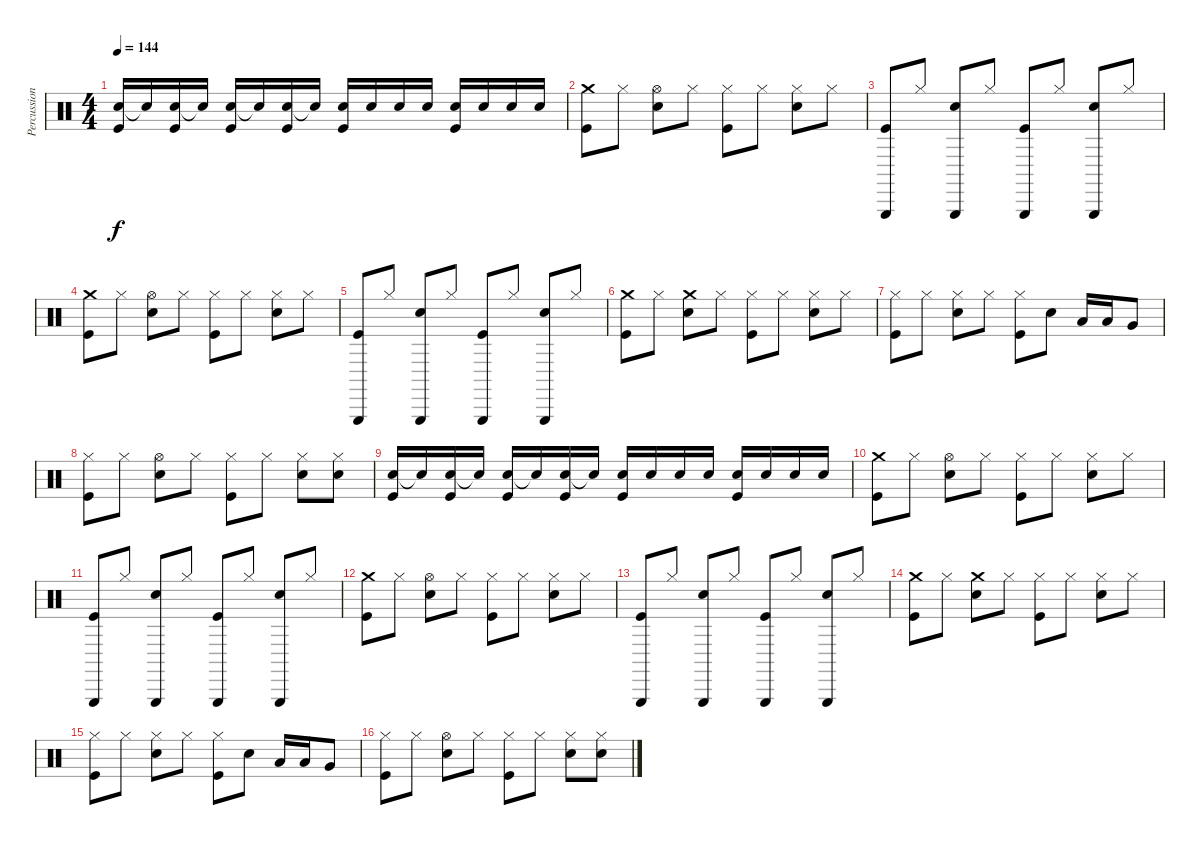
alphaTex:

\track ("Percussion" "Percussion") {instrument percussion}
\staff {score}
\articulation defaults
\ts (4 4)
\tempo 144
\clef neutral
\ks c
("Snare (hit) 2" "Kick (hit)").16{dy f} "Snare (hit) 2"{t}.16 ("Snare (hit) 2" "Kick (hit)").16 "Snare (hit) 2"{t}.16 ("Snare (hit) 2" "Kick (hit)").16 "Snare (hit) 2"{t}.16 ("Snare (hit) 2" "Kick (hit)").16 "Snare (hit) 2"{t}.16 ("Snare (hit) 2" "Kick (hit)").16 "Snare (hit) 2".16 "Snare (hit) 2".16 "Snare (hit) 2".16 ("Snare (hit) 2" "Kick (hit)").16 "Snare (hit) 2".16 "Snare (hit) 2".16 "Snare (hit) 2".16 |
("Crash medium (hit)" "Kick (hit)").8 "Hi-Hat (closed)".8 ("Hi-Hat (open)" "Snare (hit) 2").8 "Hi-Hat (closed)".8 ("Hi-Hat (closed)" "Kick (hit)").8 "Hi-Hat (closed)".8 ("Hi-Hat (closed)" "Snare (hit) 2").8 "Hi-Hat (closed)".8 |
("Triangle (hit)" "Kick (hit)").8 "Hi-Hat (closed)".8 ("Triangle (hit)" "Snare (hit) 2").8 "Hi-Hat (closed)".8 ("Triangle (hit)" "Kick (hit)").8 "Hi-Hat (closed)".8 ("Triangle (hit)" "Snare (hit) 2").8 "Hi-Hat (closed)".8 |
("Crash medium (hit)" "Kick (hit)").8 "Hi-Hat (closed)".8 ("Hi-Hat (open)" "Snare (hit) 2").8 "Hi-Hat (closed)".8 ("Hi-Hat (closed)" "Kick (hit)").8 "Hi-Hat (closed)".8 ("Hi-Hat (closed)" "Snare (hit) 2").8 "Hi-Hat (closed)".8 |
("Triangle (hit)" "Kick (hit)").8 "Hi-Hat (closed)".8 ("Triangle (hit)" "Snare (hit) 2").8 "Hi-Hat (closed)".8 ("Triangle (hit)" "Kick (hit)").8 "Hi-Hat (closed)".8 ("Triangle (hit)" "Snare (hit) 2").8 "Hi-Hat (closed)".8 |
("Crash medium (hit)" "Kick (hit)").8 "Hi-Hat (closed)".8 ("Crash medium (hit)" "Snare (hit) 2").8 "Hi-Hat (closed)".8 ("Hi-Hat (closed)" "Kick (hit)").8 "Hi-Hat (closed)".8 ("Hi-Hat (closed)" "Snare (hit) 2").8 "Hi-Hat (closed)".8 |
("Hi-Hat (closed)" "Kick (hit)").8 "Hi-Hat (closed)".8 ("Hi-Hat (closed)" "Snare (hit) 2").8 "Hi-Hat (closed)".8 ("Hi-Hat (closed)" "Kick (hit)").8 "Snare (hit) 2".8 "Low Floor Tom (hit)".16 "Low Floor Tom (hit)".16 "Very Low Tom (hit)".8 |
("Hi-Hat (closed)" "Kick (hit)").8 "Hi-Hat (closed)".8 ("Hi-Hat (open)" "Snare (hit) 2").8 "Hi-Hat (closed)".8 ("Hi-Hat (closed)" "Kick (hit)").8 "Hi-Hat (closed)".8 ("Hi-Hat (closed)" "Snare (hit) 2").8 ("Hi-Hat (closed)" "Snare (hit) 2").8 |
("Snare (hit) 2" "Kick (hit)").16 "Snare (hit) 2"{t}.16 ("Snare (hit) 2" "Kick (hit)").16 "Snare (hit) 2"{t}.16 ("Snare (hit) 2" "Kick (hit)").16 "Snare (hit) 2"{t}.16 ("Snare (hit) 2" "Kick (hit)").16 "Snare (hit) 2"{t}.16 ("Snare (hit) 2" "Kick (hit)").16 "Snare (hit) 2".16 "Snare (hit) 2".16 "Snare (hit) 2".16 ("Snare (hit) 2" "Kick (hit)").16 "Snare (hit) 2".16 "Snare (hit) 2".16 "Snare (hit) 2".16 |
("Crash medium (hit)" "Kick (hit)").8 "Hi-Hat (closed)".8 ("Hi-Hat (open)" "Snare (hit) 2").8 "Hi-Hat (closed)".8 ("Hi-Hat (closed)" "Kick (hit)").8 "Hi-Hat (closed)".8 ("Hi-Hat (closed)" "Snare (hit) 2").8 "Hi-Hat (closed)".8 |
("Triangle (hit)" "Kick (hit)").8 "Hi-Hat (closed)".8 ("Triangle (hit)" "Snare (hit) 2").8 "Hi-Hat (closed)".8 ("Triangle (hit)" "Kick (hit)").8 "Hi-Hat (closed)".8 ("Triangle (hit)" "Snare (hit) 2").8 "Hi-Hat (closed)".8 |
("Crash medium (hit)" "Kick (hit)").8 "Hi-Hat (closed)".8 ("Hi-Hat (open)" "Snare (hit) 2").8 "Hi-Hat (closed)".8 ("Hi-Hat (closed)" "Kick (hit)").8 "Hi-Hat (closed)".8 ("Hi-Hat (closed)" "Snare (hit) 2").8 "Hi-Hat (closed)".8 |
("Triangle (hit)" "Kick (hit)").8 "Hi-Hat (closed)".8 ("Triangle (hit)" "Snare (hit) 2").8 "Hi-Hat (closed)".8 ("Triangle (hit)" "Kick (hit)").8 "Hi-Hat (closed)".8 ("Triangle (hit)" "Snare (hit) 2").8 "Hi-Hat (closed)".8 |
("Crash medium (hit)" "Kick (hit)").8 "Hi-Hat (closed)".8 ("Crash medium (hit)" "Snare (hit) 2").8 "Hi-Hat (closed)".8 ("Hi-Hat (closed)" "Kick (hit)").8 "Hi-Hat (closed)".8 ("Hi-Hat (closed)" "Snare (hit) 2").8 "Hi-Hat (closed)".8 |
("Hi-Hat (closed)" "Kick (hit)").8 "Hi-Hat (closed)".8 ("Hi-Hat (closed)" "Snare (hit) 2").8 "Hi-Hat (closed)".8 ("Hi-Hat (closed)" "Kick (hit)").8 "Snare (hit) 2".8 "Low Floor Tom (hit)".16 "Low Floor Tom (hit)".16 "Very Low Tom (hit)".8 |
("Hi-Hat (closed)" "Kick (hit)").8 "Hi-Hat (closed)".8 ("Hi-Hat (open)" "Snare (hit) 2").8 "Hi-Hat (closed)".8 ("Hi-Hat (closed)" "Kick (hit)").8 "Hi-Hat (closed)".8 ("Hi-Hat (closed)" "Snare (hit) 2").8 ("Hi-Hat (closed)" "Snare (hit) 2").8
